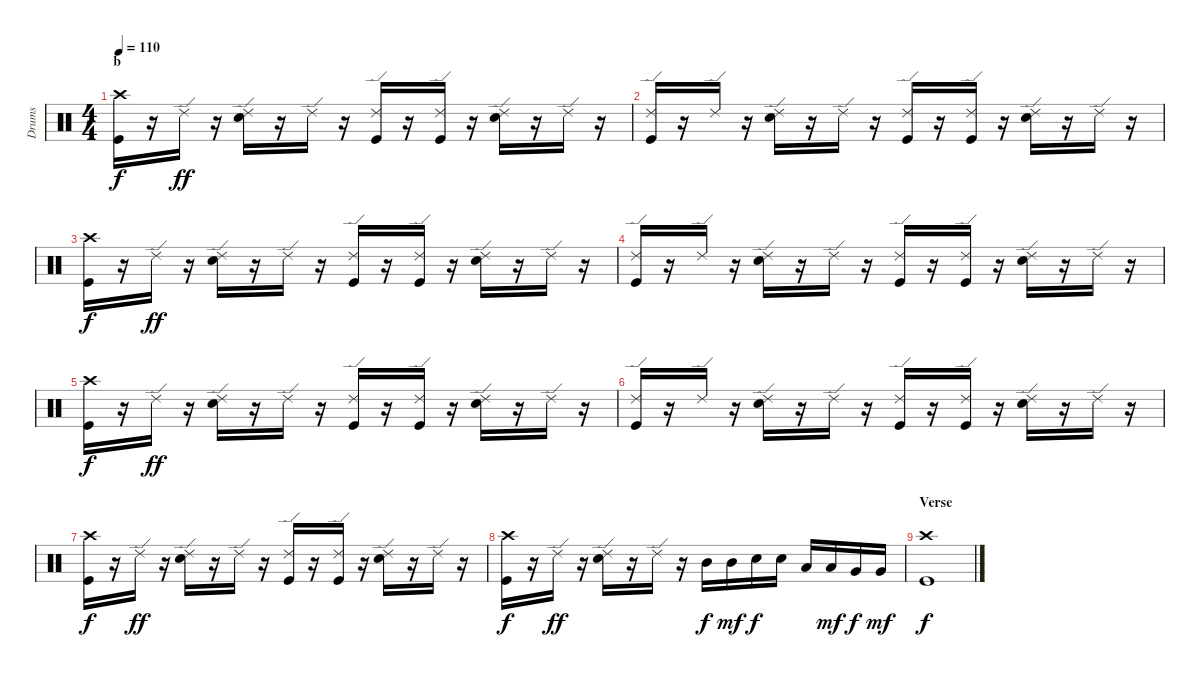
\track ("Drums" "Drums") {instrument percussion}
\staff {score}
\articulation defaults
\ts (4 4)
\section ("" "b")
\tempo 110
\clef neutral
\ks c
("Crash high (hit)" "Kick (hit)").16{dy f} r.16 "Ride (edge) 2".16{dy ff} r.16 ("Ride (edge) 2" "Snare (hit) 2").16 r.16 "Ride (edge) 2".16 r.16 ("Ride (edge) 2" "Kick (hit)").16 r.16 ("Ride (edge) 2" "Kick (hit)").16 r.16 ("Ride (edge) 2" "Snare (hit) 2").16 r.16 "Ride (edge) 2".16 r.16 |
("Ride (edge) 2" "Kick (hit)").16 r.16 "Ride (edge) 2".16 r.16 ("Ride (edge) 2" "Snare (hit) 2").16 r.16 "Ride (edge) 2".16 r.16 ("Ride (edge) 2" "Kick (hit)").16 r.16 ("Ride (edge) 2" "Kick (hit)").16 r.16 ("Ride (edge) 2" "Snare (hit) 2").16 r.16 "Ride (edge) 2".16 r.16 |
("Crash high (hit)" "Kick (hit)").16{dy f} r.16 "Ride (edge) 2".16{dy ff} r.16 ("Ride (edge) 2" "Snare (hit) 2").16 r.16 "Ride (edge) 2".16 r.16 ("Ride (edge) 2" "Kick (hit)").16 r.16 ("Ride (edge) 2" "Kick (hit)").16 r.16 ("Ride (edge) 2" "Snare (hit) 2").16 r.16 "Ride (edge) 2".16 r.16 |
("Ride (edge) 2" "Kick (hit)").16 r.16 "Ride (edge) 2".16 r.16 ("Ride (edge) 2" "Snare (hit) 2").16 r.16 "Ride (edge) 2".16 r.16 ("Ride (edge) 2" "Kick (hit)").16 r.16 ("Ride (edge) 2" "Kick (hit)").16 r.16 ("Ride (edge) 2" "Snare (hit) 2").16 r.16 "Ride (edge) 2".16 r.16 |
("Crash high (hit)" "Kick (hit)").16{dy f} r.16 "Ride (edge) 2".16{dy ff} r.16 ("Ride (edge) 2" "Snare (hit) 2").16 r.16 "Ride (edge) 2".16 r.16 ("Ride (edge) 2" "Kick (hit)").16 r.16 ("Ride (edge) 2" "Kick (hit)").16 r.16 ("Ride (edge) 2" "Snare (hit) 2").16 r.16 "Ride (edge) 2".16 r.16 |
("Ride (edge) 2" "Kick (hit)").16 r.16 "Ride (edge) 2".16 r.16 ("Ride (edge) 2" "Snare (hit) 2").16 r.16 "Ride (edge) 2".16 r.16 ("Ride (edge) 2" "Kick (hit)").16 r.16 ("Ride (edge) 2" "Kick (hit)").16 r.16 ("Ride (edge) 2" "Snare (hit) 2").16 r.16 "Ride (edge) 2".16 r.16 |
("Crash high (hit)" "Kick (hit)").16{dy f} r.16 "Ride (edge) 2".16{dy ff} r.16 ("Ride (edge) 2" "Snare (hit) 2").16 r.16 "Ride (edge) 2".16 r.16 ("Ride (edge) 2" "Kick (hit)").16 r.16 ("Ride (edge) 2" "Kick (hit)").16 r.16 ("Ride (edge) 2" "Snare (hit) 2").16 r.16 "Ride (edge) 2".16 r.16 |
("Crash high (hit)" "Kick (hit)").16{dy f} r.16 "Ride (edge) 2".16{dy ff} r.16 ("Ride (edge) 2" "Snare (hit) 2").16 r.16 "Ride (edge) 2".16 r.16 "Mid Tom (hit)".16{dy f} "Mid Tom (hit)".16{dy mf} "Snare (hit) 2".16{dy f} "Snare (hit) 2".16 "Low Tom (hit)".16 "Low Tom (hit)".16{dy mf} "Very Low Tom (hit)".16{dy f} "Very Low Tom (hit)".16{dy mf} |
\section ("" "Verse")
("Crash high (hit)" "Kick (hit)").1{dy f}
